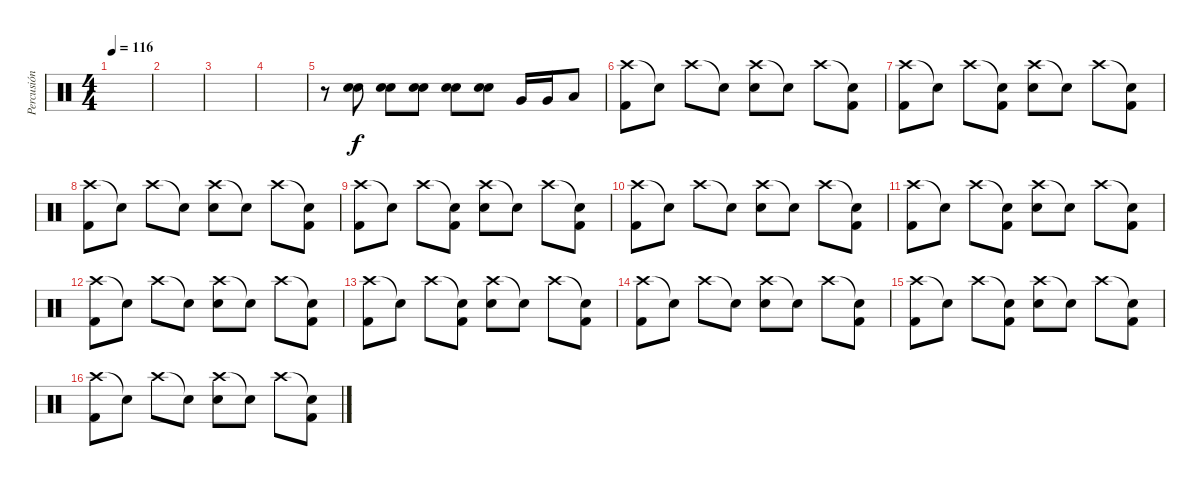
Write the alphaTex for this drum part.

\track ("Percusión" "Percusión") {instrument percussion}
\staff {score}
\articulation defaults
\ts (4 4)
\tempo 116
\clef neutral
\ks c
|
|
|
|
r.8 ("Electric Snare (hit)" "Electric Snare (hit)").8{dy f} ("Electric Snare (hit)" "Electric Snare (hit)").8 ("Electric Snare (hit)" "Electric Snare (hit)").8 ("Electric Snare (hit)" "Electric Snare (hit)").8 ("Electric Snare (hit)" "Electric Snare (hit)").8 "Very Low Tom (hit)".16 "Very Low Tom (hit)".16 "Low Tom (hit)".8 |
("Crash high (hit)" "Kick (hit) 2").8 "Snare (hit)"{t}.8 "Crash high (hit)".8 "Snare (hit)"{t}.8 ("Crash high (hit)" "Electric Snare (hit)").8 "Snare (hit)"{t}.8 "Crash high (hit)".8 ("Snare (hit)"{t} "Kick (hit) 2").8 |
("Crash high (hit)" "Kick (hit) 2").8 "Snare (hit)"{t}.8 "Crash high (hit)".8 ("Snare (hit)"{t} "Kick (hit) 2").8 ("Crash high (hit)" "Electric Snare (hit)").8 "Snare (hit)"{t}.8 "Crash high (hit)".8 ("Snare (hit)"{t} "Kick (hit) 2").8 |
("Crash high (hit)" "Kick (hit) 2").8 "Snare (hit)"{t}.8 "Crash high (hit)".8 "Snare (hit)"{t}.8 ("Crash high (hit)" "Electric Snare (hit)").8 "Snare (hit)"{t}.8 "Crash high (hit)".8 ("Snare (hit)"{t} "Kick (hit) 2").8 |
("Crash high (hit)" "Kick (hit) 2").8 "Snare (hit)"{t}.8 "Crash high (hit)".8 ("Snare (hit)"{t} "Kick (hit) 2").8 ("Crash high (hit)" "Electric Snare (hit)").8 "Snare (hit)"{t}.8 "Crash high (hit)".8 ("Snare (hit)"{t} "Kick (hit) 2").8 |
("Crash high (hit)" "Kick (hit) 2").8 "Snare (hit)"{t}.8 "Crash high (hit)".8 "Snare (hit)"{t}.8 ("Crash high (hit)" "Electric Snare (hit)").8 "Snare (hit)"{t}.8 "Crash high (hit)".8 ("Snare (hit)"{t} "Kick (hit) 2").8 |
("Crash high (hit)" "Kick (hit) 2").8 "Snare (hit)"{t}.8 "Crash high (hit)".8 ("Snare (hit)"{t} "Kick (hit) 2").8 ("Crash high (hit)" "Electric Snare (hit)").8 "Snare (hit)"{t}.8 "Crash high (hit)".8 ("Snare (hit)"{t} "Kick (hit) 2").8 |
("Crash high (hit)" "Kick (hit) 2").8 "Snare (hit)"{t}.8 "Crash high (hit)".8 "Snare (hit)"{t}.8 ("Crash high (hit)" "Electric Snare (hit)").8 "Snare (hit)"{t}.8 "Crash high (hit)".8 ("Snare (hit)"{t} "Kick (hit) 2").8 |
("Crash high (hit)" "Kick (hit) 2").8 "Snare (hit)"{t}.8 "Crash high (hit)".8 ("Snare (hit)"{t} "Kick (hit) 2").8 ("Crash high (hit)" "Electric Snare (hit)").8 "Snare (hit)"{t}.8 "Crash high (hit)".8 ("Snare (hit)"{t} "Kick (hit) 2").8 |
("Crash high (hit)" "Kick (hit) 2").8 "Snare (hit)"{t}.8 "Crash high (hit)".8 "Snare (hit)"{t}.8 ("Crash high (hit)" "Electric Snare (hit)").8 "Snare (hit)"{t}.8 "Crash high (hit)".8 ("Snare (hit)"{t} "Kick (hit) 2").8 |
("Crash high (hit)" "Kick (hit) 2").8 "Snare (hit)"{t}.8 "Crash high (hit)".8 ("Snare (hit)"{t} "Kick (hit) 2").8 ("Crash high (hit)" "Electric Snare (hit)").8 "Snare (hit)"{t}.8 "Crash high (hit)".8 ("Snare (hit)"{t} "Kick (hit) 2").8 |
("Crash high (hit)" "Kick (hit) 2").8 "Snare (hit)"{t}.8 "Crash high (hit)".8 "Snare (hit)"{t}.8 ("Crash high (hit)" "Electric Snare (hit)").8 "Snare (hit)"{t}.8 "Crash high (hit)".8 ("Snare (hit)"{t} "Kick (hit) 2").8
